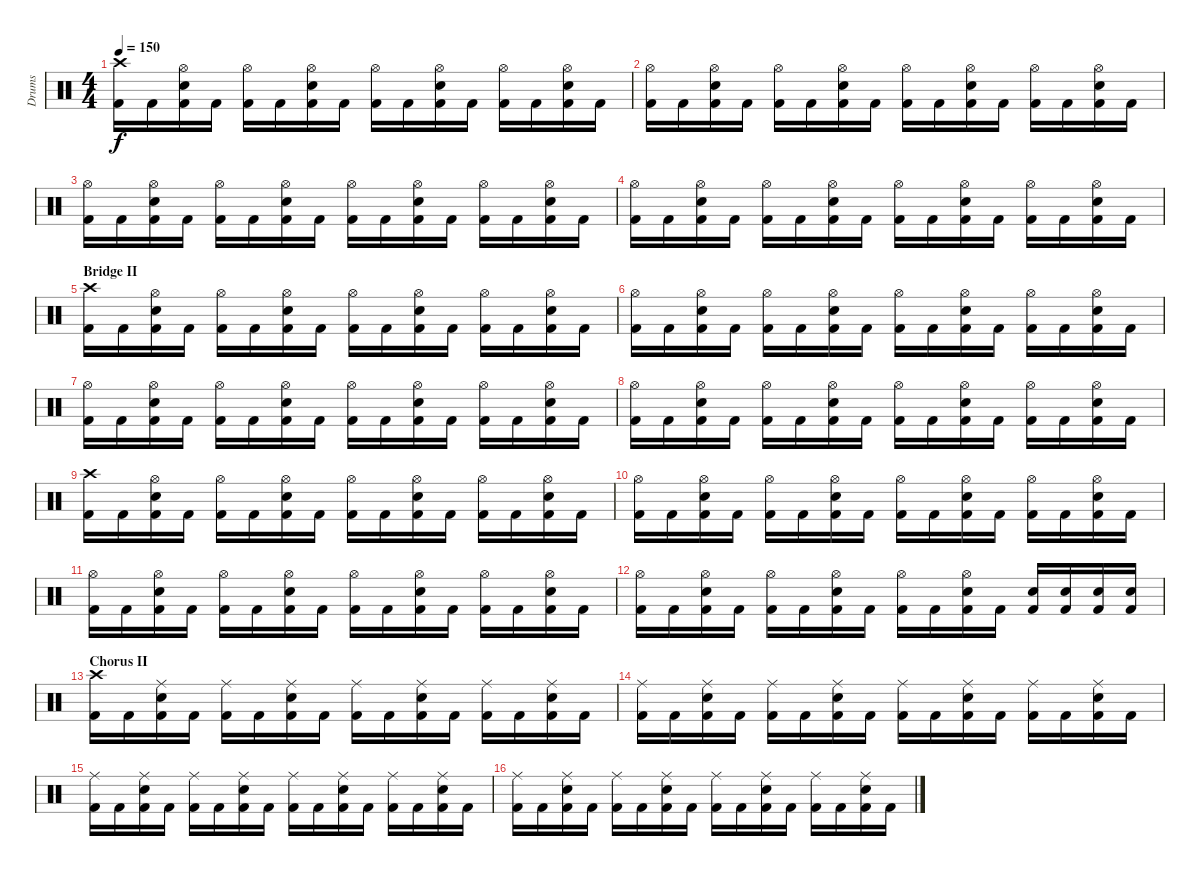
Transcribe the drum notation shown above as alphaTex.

\track ("Drums" "Drums") {instrument percussion}
\staff {score}
\articulation defaults
\ts (4 4)
\tempo 150
\clef neutral
\ks c
("Crash high (hit)" "Kick (hit) 2").16{dy f} "Kick (hit) 2".16 ("Hi-Hat (open)" "Electric Snare (hit)" "Kick (hit) 2").16 "Kick (hit) 2".16 ("Hi-Hat (open)" "Kick (hit) 2").16 "Kick (hit) 2".16 ("Hi-Hat (open)" "Electric Snare (hit)" "Kick (hit) 2").16 "Kick (hit) 2".16 ("Hi-Hat (open)" "Kick (hit) 2").16 "Kick (hit) 2".16 ("Hi-Hat (open)" "Electric Snare (hit)" "Kick (hit) 2").16 "Kick (hit) 2".16 ("Hi-Hat (open)" "Kick (hit) 2").16 "Kick (hit) 2".16 ("Hi-Hat (open)" "Electric Snare (hit)" "Kick (hit) 2").16 "Kick (hit) 2".16 |
("Hi-Hat (open)" "Kick (hit) 2").16 "Kick (hit) 2".16 ("Hi-Hat (open)" "Electric Snare (hit)" "Kick (hit) 2").16 "Kick (hit) 2".16 ("Hi-Hat (open)" "Kick (hit) 2").16 "Kick (hit) 2".16 ("Hi-Hat (open)" "Electric Snare (hit)" "Kick (hit) 2").16 "Kick (hit) 2".16 ("Hi-Hat (open)" "Kick (hit) 2").16 "Kick (hit) 2".16 ("Hi-Hat (open)" "Electric Snare (hit)" "Kick (hit) 2").16 "Kick (hit) 2".16 ("Hi-Hat (open)" "Kick (hit) 2").16 "Kick (hit) 2".16 ("Hi-Hat (open)" "Electric Snare (hit)" "Kick (hit) 2").16 "Kick (hit) 2".16 |
("Hi-Hat (open)" "Kick (hit) 2").16 "Kick (hit) 2".16 ("Hi-Hat (open)" "Electric Snare (hit)" "Kick (hit) 2").16 "Kick (hit) 2".16 ("Hi-Hat (open)" "Kick (hit) 2").16 "Kick (hit) 2".16 ("Hi-Hat (open)" "Electric Snare (hit)" "Kick (hit) 2").16 "Kick (hit) 2".16 ("Hi-Hat (open)" "Kick (hit) 2").16 "Kick (hit) 2".16 ("Hi-Hat (open)" "Electric Snare (hit)" "Kick (hit) 2").16 "Kick (hit) 2".16 ("Hi-Hat (open)" "Kick (hit) 2").16 "Kick (hit) 2".16 ("Hi-Hat (open)" "Electric Snare (hit)" "Kick (hit) 2").16 "Kick (hit) 2".16 |
("Hi-Hat (open)" "Kick (hit) 2").16 "Kick (hit) 2".16 ("Hi-Hat (open)" "Electric Snare (hit)" "Kick (hit) 2").16 "Kick (hit) 2".16 ("Hi-Hat (open)" "Kick (hit) 2").16 "Kick (hit) 2".16 ("Hi-Hat (open)" "Electric Snare (hit)" "Kick (hit) 2").16 "Kick (hit) 2".16 ("Hi-Hat (open)" "Kick (hit) 2").16 "Kick (hit) 2".16 ("Hi-Hat (open)" "Electric Snare (hit)" "Kick (hit) 2").16 "Kick (hit) 2".16 ("Hi-Hat (open)" "Kick (hit) 2").16 "Kick (hit) 2".16 ("Hi-Hat (open)" "Electric Snare (hit)" "Kick (hit) 2").16 "Kick (hit) 2".16 |
\section ("" "Bridge II")
("Crash high (hit)" "Kick (hit) 2").16 "Kick (hit) 2".16 ("Hi-Hat (open)" "Electric Snare (hit)" "Kick (hit) 2").16 "Kick (hit) 2".16 ("Hi-Hat (open)" "Kick (hit) 2").16 "Kick (hit) 2".16 ("Hi-Hat (open)" "Electric Snare (hit)" "Kick (hit) 2").16 "Kick (hit) 2".16 ("Hi-Hat (open)" "Kick (hit) 2").16 "Kick (hit) 2".16 ("Hi-Hat (open)" "Electric Snare (hit)" "Kick (hit) 2").16 "Kick (hit) 2".16 ("Hi-Hat (open)" "Kick (hit) 2").16 "Kick (hit) 2".16 ("Hi-Hat (open)" "Electric Snare (hit)" "Kick (hit) 2").16 "Kick (hit) 2".16 |
("Hi-Hat (open)" "Kick (hit) 2").16 "Kick (hit) 2".16 ("Hi-Hat (open)" "Electric Snare (hit)" "Kick (hit) 2").16 "Kick (hit) 2".16 ("Hi-Hat (open)" "Kick (hit) 2").16 "Kick (hit) 2".16 ("Hi-Hat (open)" "Electric Snare (hit)" "Kick (hit) 2").16 "Kick (hit) 2".16 ("Hi-Hat (open)" "Kick (hit) 2").16 "Kick (hit) 2".16 ("Hi-Hat (open)" "Electric Snare (hit)" "Kick (hit) 2").16 "Kick (hit) 2".16 ("Hi-Hat (open)" "Kick (hit) 2").16 "Kick (hit) 2".16 ("Hi-Hat (open)" "Electric Snare (hit)" "Kick (hit) 2").16 "Kick (hit) 2".16 |
("Hi-Hat (open)" "Kick (hit) 2").16 "Kick (hit) 2".16 ("Hi-Hat (open)" "Electric Snare (hit)" "Kick (hit) 2").16 "Kick (hit) 2".16 ("Hi-Hat (open)" "Kick (hit) 2").16 "Kick (hit) 2".16 ("Hi-Hat (open)" "Electric Snare (hit)" "Kick (hit) 2").16 "Kick (hit) 2".16 ("Hi-Hat (open)" "Kick (hit) 2").16 "Kick (hit) 2".16 ("Hi-Hat (open)" "Electric Snare (hit)" "Kick (hit) 2").16 "Kick (hit) 2".16 ("Hi-Hat (open)" "Kick (hit) 2").16 "Kick (hit) 2".16 ("Hi-Hat (open)" "Electric Snare (hit)" "Kick (hit) 2").16 "Kick (hit) 2".16 |
("Hi-Hat (open)" "Kick (hit) 2").16 "Kick (hit) 2".16 ("Hi-Hat (open)" "Electric Snare (hit)" "Kick (hit) 2").16 "Kick (hit) 2".16 ("Hi-Hat (open)" "Kick (hit) 2").16 "Kick (hit) 2".16 ("Hi-Hat (open)" "Electric Snare (hit)" "Kick (hit) 2").16 "Kick (hit) 2".16 ("Hi-Hat (open)" "Kick (hit) 2").16 "Kick (hit) 2".16 ("Hi-Hat (open)" "Electric Snare (hit)" "Kick (hit) 2").16 "Kick (hit) 2".16 ("Hi-Hat (open)" "Kick (hit) 2").16 "Kick (hit) 2".16 ("Hi-Hat (open)" "Electric Snare (hit)" "Kick (hit) 2").16 "Kick (hit) 2".16 |
("Crash high (hit)" "Kick (hit) 2").16 "Kick (hit) 2".16 ("Hi-Hat (open)" "Electric Snare (hit)" "Kick (hit) 2").16 "Kick (hit) 2".16 ("Hi-Hat (open)" "Kick (hit) 2").16 "Kick (hit) 2".16 ("Hi-Hat (open)" "Electric Snare (hit)" "Kick (hit) 2").16 "Kick (hit) 2".16 ("Hi-Hat (open)" "Kick (hit) 2").16 "Kick (hit) 2".16 ("Hi-Hat (open)" "Electric Snare (hit)" "Kick (hit) 2").16 "Kick (hit) 2".16 ("Hi-Hat (open)" "Kick (hit) 2").16 "Kick (hit) 2".16 ("Hi-Hat (open)" "Electric Snare (hit)" "Kick (hit) 2").16 "Kick (hit) 2".16 |
("Hi-Hat (open)" "Kick (hit) 2").16 "Kick (hit) 2".16 ("Hi-Hat (open)" "Electric Snare (hit)" "Kick (hit) 2").16 "Kick (hit) 2".16 ("Hi-Hat (open)" "Kick (hit) 2").16 "Kick (hit) 2".16 ("Hi-Hat (open)" "Electric Snare (hit)" "Kick (hit) 2").16 "Kick (hit) 2".16 ("Hi-Hat (open)" "Kick (hit) 2").16 "Kick (hit) 2".16 ("Hi-Hat (open)" "Electric Snare (hit)" "Kick (hit) 2").16 "Kick (hit) 2".16 ("Hi-Hat (open)" "Kick (hit) 2").16 "Kick (hit) 2".16 ("Hi-Hat (open)" "Electric Snare (hit)" "Kick (hit) 2").16 "Kick (hit) 2".16 |
("Hi-Hat (open)" "Kick (hit) 2").16 "Kick (hit) 2".16 ("Hi-Hat (open)" "Electric Snare (hit)" "Kick (hit) 2").16 "Kick (hit) 2".16 ("Hi-Hat (open)" "Kick (hit) 2").16 "Kick (hit) 2".16 ("Hi-Hat (open)" "Electric Snare (hit)" "Kick (hit) 2").16 "Kick (hit) 2".16 ("Hi-Hat (open)" "Kick (hit) 2").16 "Kick (hit) 2".16 ("Hi-Hat (open)" "Electric Snare (hit)" "Kick (hit) 2").16 "Kick (hit) 2".16 ("Hi-Hat (open)" "Kick (hit) 2").16 "Kick (hit) 2".16 ("Hi-Hat (open)" "Electric Snare (hit)" "Kick (hit) 2").16 "Kick (hit) 2".16 |
("Hi-Hat (open)" "Kick (hit) 2").16 "Kick (hit) 2".16 ("Hi-Hat (open)" "Electric Snare (hit)" "Kick (hit) 2").16 "Kick (hit) 2".16 ("Hi-Hat (open)" "Kick (hit) 2").16 "Kick (hit) 2".16 ("Hi-Hat (open)" "Electric Snare (hit)" "Kick (hit) 2").16 "Kick (hit) 2".16 ("Hi-Hat (open)" "Kick (hit) 2").16 "Kick (hit) 2".16 ("Hi-Hat (open)" "Electric Snare (hit)" "Kick (hit) 2").16 "Kick (hit) 2".16 ("Electric Snare (hit)" "Kick (hit) 2").16 ("Electric Snare (hit)" "Kick (hit) 2").16 ("Electric Snare (hit)" "Kick (hit) 2").16 ("Electric Snare (hit)" "Kick (hit) 2").16 |
\section ("" "Chorus II")
("Crash high (hit)" "Kick (hit) 2").16 "Kick (hit) 2".16 ("Ride (middle)" "Electric Snare (hit)" "Kick (hit) 2").16 "Kick (hit) 2".16 ("Ride (middle)" "Kick (hit) 2").16 "Kick (hit) 2".16 ("Ride (middle)" "Electric Snare (hit)" "Kick (hit) 2").16 "Kick (hit) 2".16 ("Ride (middle)" "Kick (hit) 2").16 "Kick (hit) 2".16 ("Ride (middle)" "Electric Snare (hit)" "Kick (hit) 2").16 "Kick (hit) 2".16 ("Ride (middle)" "Kick (hit) 2").16 "Kick (hit) 2".16 ("Ride (middle)" "Electric Snare (hit)" "Kick (hit) 2").16 "Kick (hit) 2".16 |
("Ride (middle)" "Kick (hit) 2").16 "Kick (hit) 2".16 ("Ride (middle)" "Electric Snare (hit)" "Kick (hit) 2").16 "Kick (hit) 2".16 ("Ride (middle)" "Kick (hit) 2").16 "Kick (hit) 2".16 ("Ride (middle)" "Electric Snare (hit)" "Kick (hit) 2").16 "Kick (hit) 2".16 ("Ride (middle)" "Kick (hit) 2").16 "Kick (hit) 2".16 ("Ride (middle)" "Electric Snare (hit)" "Kick (hit) 2").16 "Kick (hit) 2".16 ("Ride (middle)" "Kick (hit) 2").16 "Kick (hit) 2".16 ("Ride (middle)" "Electric Snare (hit)" "Kick (hit) 2").16 "Kick (hit) 2".16 |
("Ride (middle)" "Kick (hit) 2").16 "Kick (hit) 2".16 ("Ride (middle)" "Electric Snare (hit)" "Kick (hit) 2").16 "Kick (hit) 2".16 ("Ride (middle)" "Kick (hit) 2").16 "Kick (hit) 2".16 ("Ride (middle)" "Electric Snare (hit)" "Kick (hit) 2").16 "Kick (hit) 2".16 ("Ride (middle)" "Kick (hit) 2").16 "Kick (hit) 2".16 ("Ride (middle)" "Electric Snare (hit)" "Kick (hit) 2").16 "Kick (hit) 2".16 ("Ride (middle)" "Kick (hit) 2").16 "Kick (hit) 2".16 ("Ride (middle)" "Electric Snare (hit)" "Kick (hit) 2").16 "Kick (hit) 2".16 |
("Ride (middle)" "Kick (hit) 2").16 "Kick (hit) 2".16 ("Ride (middle)" "Electric Snare (hit)" "Kick (hit) 2").16 "Kick (hit) 2".16 ("Ride (middle)" "Kick (hit) 2").16 "Kick (hit) 2".16 ("Ride (middle)" "Electric Snare (hit)" "Kick (hit) 2").16 "Kick (hit) 2".16 ("Ride (middle)" "Kick (hit) 2").16 "Kick (hit) 2".16 ("Ride (middle)" "Electric Snare (hit)" "Kick (hit) 2").16 "Kick (hit) 2".16 ("Ride (middle)" "Kick (hit) 2").16 "Kick (hit) 2".16 ("Ride (middle)" "Electric Snare (hit)" "Kick (hit) 2").16 "Kick (hit) 2".16
